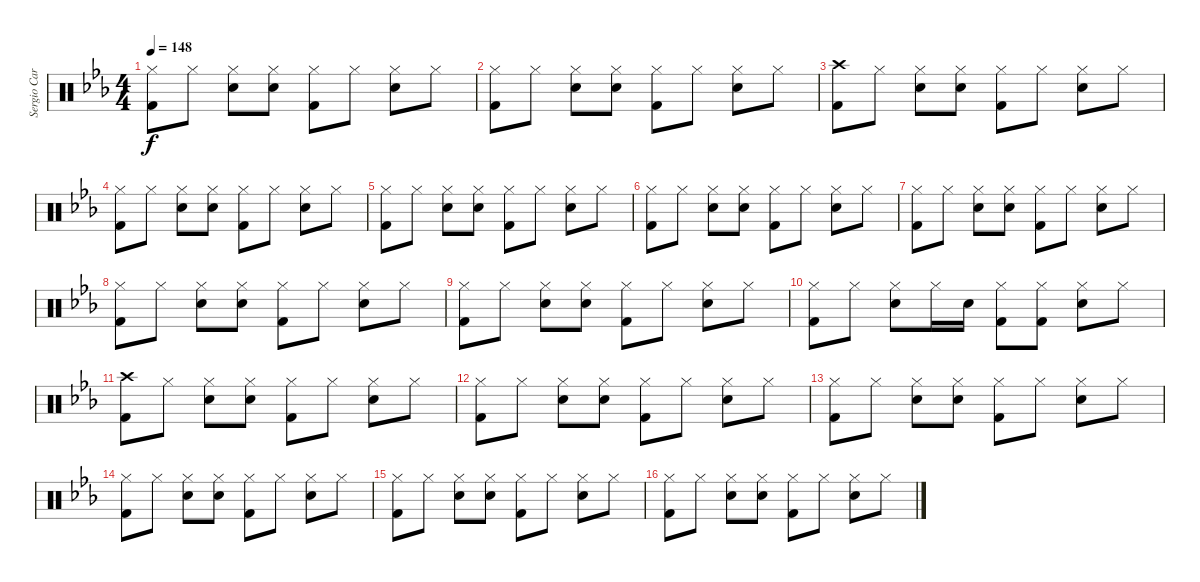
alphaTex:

\track ("Sergio Carnevale [Batteria]" "Sergio Car") {instrument percussion}
\staff {score}
\articulation defaults
\ts (4 4)
\tempo 148
\clef neutral
\ks cminor
("Hi-Hat (closed)" "Kick (hit) 2").8{dy f} "Hi-Hat (closed)".8 ("Hi-Hat (closed)" "Snare (hit) 2").8 ("Hi-Hat (closed)" "Snare (hit) 2").8 ("Hi-Hat (closed)" "Kick (hit) 2").8 "Hi-Hat (closed)".8 ("Hi-Hat (closed)" "Snare (hit) 2").8 "Hi-Hat (closed)".8 |
("Hi-Hat (closed)" "Kick (hit) 2").8 "Hi-Hat (closed)".8 ("Hi-Hat (closed)" "Snare (hit) 2").8 ("Hi-Hat (closed)" "Snare (hit) 2").8 ("Hi-Hat (closed)" "Kick (hit) 2").8 "Hi-Hat (closed)".8 ("Hi-Hat (closed)" "Snare (hit) 2").8 "Hi-Hat (closed)".8 |
("Crash high (hit)" "Kick (hit) 2").8 "Hi-Hat (closed)".8 ("Hi-Hat (closed)" "Snare (hit) 2").8 ("Hi-Hat (closed)" "Snare (hit) 2").8 ("Hi-Hat (closed)" "Kick (hit) 2").8 "Hi-Hat (closed)".8 ("Hi-Hat (closed)" "Snare (hit) 2").8 "Hi-Hat (closed)".8 |
("Hi-Hat (closed)" "Kick (hit) 2").8 "Hi-Hat (closed)".8 ("Hi-Hat (closed)" "Snare (hit) 2").8 ("Hi-Hat (closed)" "Snare (hit) 2").8 ("Hi-Hat (closed)" "Kick (hit) 2").8 "Hi-Hat (closed)".8 ("Hi-Hat (closed)" "Snare (hit) 2").8 "Hi-Hat (closed)".8 |
("Hi-Hat (closed)" "Kick (hit) 2").8 "Hi-Hat (closed)".8 ("Hi-Hat (closed)" "Snare (hit) 2").8 ("Hi-Hat (closed)" "Snare (hit) 2").8 ("Hi-Hat (closed)" "Kick (hit) 2").8 "Hi-Hat (closed)".8 ("Hi-Hat (closed)" "Snare (hit) 2").8 "Hi-Hat (closed)".8 |
("Hi-Hat (closed)" "Kick (hit) 2").8 "Hi-Hat (closed)".8 ("Hi-Hat (closed)" "Snare (hit) 2").8 ("Hi-Hat (closed)" "Snare (hit) 2").8 ("Hi-Hat (closed)" "Kick (hit) 2").8 "Hi-Hat (closed)".8 ("Hi-Hat (closed)" "Snare (hit) 2").8 "Hi-Hat (closed)".8 |
("Hi-Hat (closed)" "Kick (hit) 2").8 "Hi-Hat (closed)".8 ("Hi-Hat (closed)" "Snare (hit) 2").8 ("Hi-Hat (closed)" "Snare (hit) 2").8 ("Hi-Hat (closed)" "Kick (hit) 2").8 "Hi-Hat (closed)".8 ("Hi-Hat (closed)" "Snare (hit) 2").8 "Hi-Hat (closed)".8 |
("Hi-Hat (closed)" "Kick (hit) 2").8 "Hi-Hat (closed)".8 ("Hi-Hat (closed)" "Snare (hit) 2").8 ("Hi-Hat (closed)" "Snare (hit) 2").8 ("Hi-Hat (closed)" "Kick (hit) 2").8 "Hi-Hat (closed)".8 ("Hi-Hat (closed)" "Snare (hit) 2").8 "Hi-Hat (closed)".8 |
("Hi-Hat (closed)" "Kick (hit) 2").8 "Hi-Hat (closed)".8 ("Hi-Hat (closed)" "Snare (hit) 2").8 ("Hi-Hat (closed)" "Snare (hit) 2").8 ("Hi-Hat (closed)" "Kick (hit) 2").8 "Hi-Hat (closed)".8 ("Hi-Hat (closed)" "Snare (hit) 2").8 "Hi-Hat (closed)".8 |
("Hi-Hat (closed)" "Kick (hit) 2").8 "Hi-Hat (closed)".8 ("Hi-Hat (closed)" "Snare (hit) 2").8 "Hi-Hat (closed)".16 "Snare (hit) 2".16 ("Hi-Hat (closed)" "Kick (hit) 2").8 ("Hi-Hat (closed)" "Kick (hit) 2").8 ("Hi-Hat (closed)" "Snare (hit) 2").8 "Hi-Hat (closed)".8 |
("Crash high (hit)" "Kick (hit) 2").8 "Hi-Hat (closed)".8 ("Hi-Hat (closed)" "Snare (hit) 2").8 ("Hi-Hat (closed)" "Snare (hit) 2").8 ("Hi-Hat (closed)" "Kick (hit) 2").8 "Hi-Hat (closed)".8 ("Hi-Hat (closed)" "Snare (hit) 2").8 "Hi-Hat (closed)".8 |
("Hi-Hat (closed)" "Kick (hit) 2").8 "Hi-Hat (closed)".8 ("Hi-Hat (closed)" "Snare (hit) 2").8 ("Hi-Hat (closed)" "Snare (hit) 2").8 ("Hi-Hat (closed)" "Kick (hit) 2").8 "Hi-Hat (closed)".8 ("Hi-Hat (closed)" "Snare (hit) 2").8 "Hi-Hat (closed)".8 |
("Hi-Hat (closed)" "Kick (hit) 2").8 "Hi-Hat (closed)".8 ("Hi-Hat (closed)" "Snare (hit) 2").8 ("Hi-Hat (closed)" "Snare (hit) 2").8 ("Hi-Hat (closed)" "Kick (hit) 2").8 "Hi-Hat (closed)".8 ("Hi-Hat (closed)" "Snare (hit) 2").8 "Hi-Hat (closed)".8 |
("Hi-Hat (closed)" "Kick (hit) 2").8 "Hi-Hat (closed)".8 ("Hi-Hat (closed)" "Snare (hit) 2").8 ("Hi-Hat (closed)" "Snare (hit) 2").8 ("Hi-Hat (closed)" "Kick (hit) 2").8 "Hi-Hat (closed)".8 ("Hi-Hat (closed)" "Snare (hit) 2").8 "Hi-Hat (closed)".8 |
("Hi-Hat (closed)" "Kick (hit) 2").8 "Hi-Hat (closed)".8 ("Hi-Hat (closed)" "Snare (hit) 2").8 ("Hi-Hat (closed)" "Snare (hit) 2").8 ("Hi-Hat (closed)" "Kick (hit) 2").8 "Hi-Hat (closed)".8 ("Hi-Hat (closed)" "Snare (hit) 2").8 "Hi-Hat (closed)".8 |
("Hi-Hat (closed)" "Kick (hit) 2").8 "Hi-Hat (closed)".8 ("Hi-Hat (closed)" "Snare (hit) 2").8 ("Hi-Hat (closed)" "Snare (hit) 2").8 ("Hi-Hat (closed)" "Kick (hit) 2").8 "Hi-Hat (closed)".8 ("Hi-Hat (closed)" "Snare (hit) 2").8 "Hi-Hat (closed)".8
